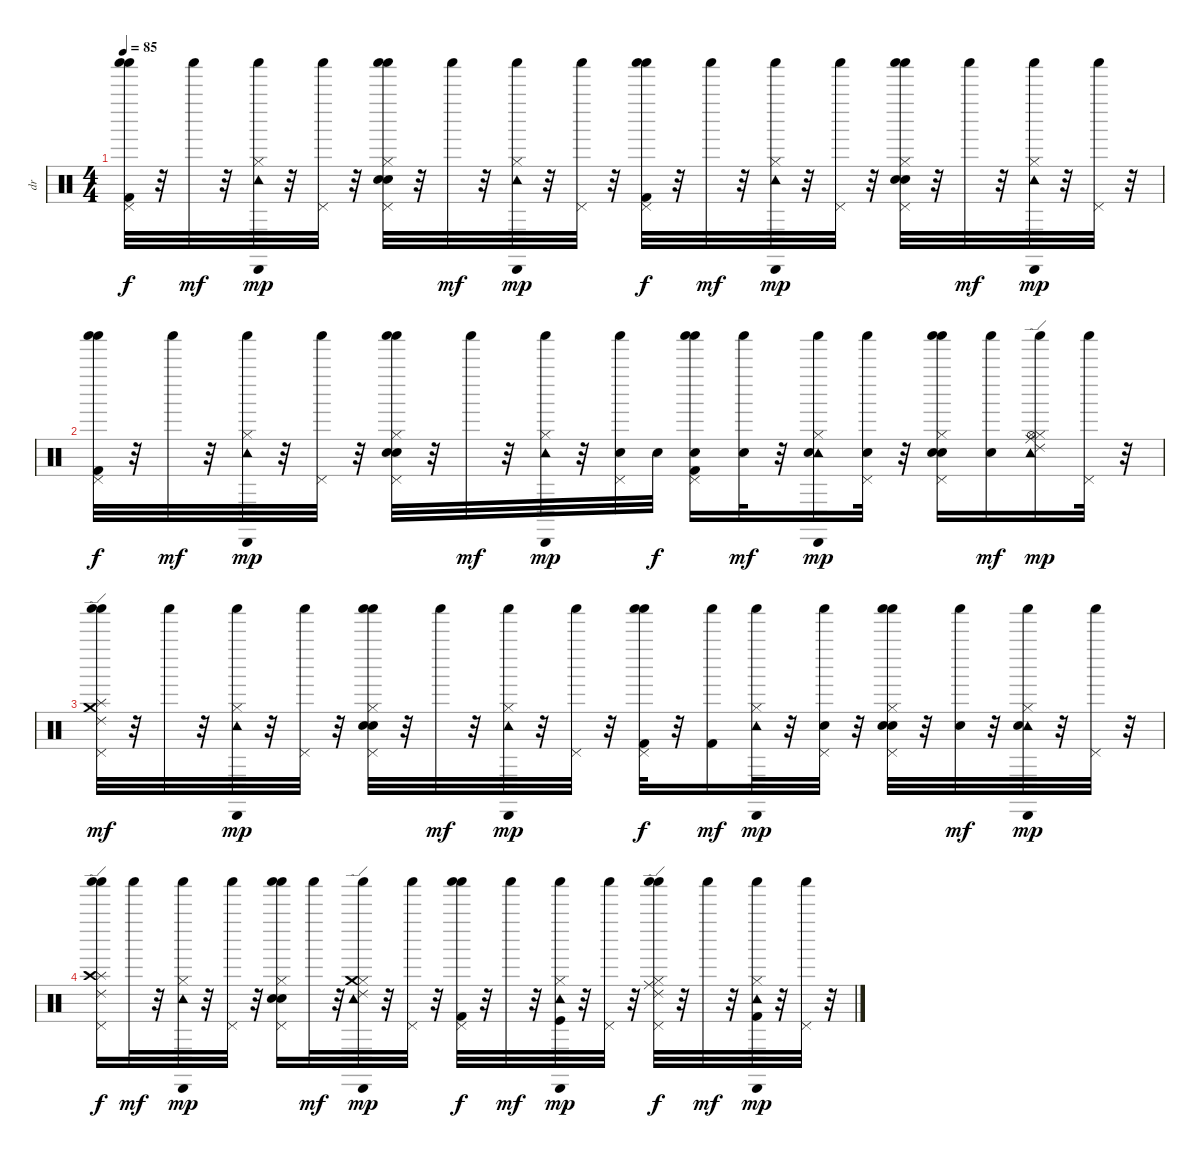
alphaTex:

\track ("dr" "dr") {instrument percussion}
\staff {score}
\articulation defaults
\ts (4 4)
\tempo 85
\clef neutral
\ks c
("Pedal Hi-Hat (hit)" "Shaker (hit)" "Shaker (hit)" "Kick (hit) 2").32{dy f} r.32 "Shaker (hit)".32{dy mf} r.32 ("Hi-Hat (closed)" "Cabasa (hit)" "Tambourine (hit)" "Shaker (hit)").32{dy mp} r.32 ("Pedal Hi-Hat (hit)" "Shaker (hit)").32 r.32 ("Electric Snare (hit)" "Pedal Hi-Hat (hit)" "Shaker (hit)" "Shaker (hit)" "Hi-Hat (closed)" "Snare (hit) 2").32 r.32 "Shaker (hit)".32{dy mf} r.32 ("Hi-Hat (closed)" "Tambourine (hit)" "Cabasa (hit)" "Shaker (hit)").32{dy mp} r.32 ("Pedal Hi-Hat (hit)" "Shaker (hit)").32 r.32 ("Pedal Hi-Hat (hit)" "Shaker (hit)" "Shaker (hit)" "Kick (hit) 2").32{dy f} r.32 "Shaker (hit)".32{dy mf} r.32 ("Hi-Hat (closed)" "Cabasa (hit)" "Tambourine (hit)" "Shaker (hit)").32{dy mp} r.32 ("Pedal Hi-Hat (hit)" "Shaker (hit)").32 r.32 ("Electric Snare (hit)" "Pedal Hi-Hat (hit)" "Shaker (hit)" "Shaker (hit)" "Hi-Hat (closed)" "Snare (hit) 2").32 r.32 "Shaker (hit)".32{dy mf} r.32 ("Hi-Hat (closed)" "Cabasa (hit)" "Tambourine (hit)" "Shaker (hit)").32{dy mp} r.32 ("Pedal Hi-Hat (hit)" "Shaker (hit)").32 r.32 |
("Pedal Hi-Hat (hit)" "Shaker (hit)" "Shaker (hit)" "Kick (hit) 2").32{dy f} r.32 "Shaker (hit)".32{dy mf} r.32 ("Hi-Hat (closed)" "Cabasa (hit)" "Tambourine (hit)" "Shaker (hit)").32{dy mp} r.32 ("Pedal Hi-Hat (hit)" "Shaker (hit)").32 r.32 ("Electric Snare (hit)" "Pedal Hi-Hat (hit)" "Shaker (hit)" "Shaker (hit)" "Hi-Hat (closed)" "Snare (hit) 2").32 r.32 "Shaker (hit)".32{dy mf} r.32 ("Hi-Hat (closed)" "Cabasa (hit)" "Tambourine (hit)" "Shaker (hit)").32{dy mp} r.32 ("Pedal Hi-Hat (hit)" "Shaker (hit)" "Snare (hit) 2").32 "Snare (hit) 2".32{dy f} ("Pedal Hi-Hat (hit)" "Shaker (hit)" "Shaker (hit)" "Kick (hit) 2" "Snare (hit) 2").16 ("Shaker (hit)" "Snare (hit) 2").32{dy mf} r.32 ("Hi-Hat (closed)" "Cabasa (hit)" "Tambourine (hit)" "Shaker (hit)" "Electric Snare (hit)").16{dy mp} ("Pedal Hi-Hat (hit)" "Shaker (hit)" "Snare (hit) 2").32 r.32 ("Electric Snare (hit)" "Pedal Hi-Hat (hit)" "Shaker (hit)" "Shaker (hit)" "Hi-Hat (closed)" "Snare (hit) 2").16 ("Shaker (hit)" "Snare (hit) 2").16{dy mf} ("Hi-Hat (closed)" "Tambourine (hit)" "Shaker (hit)" "Ride (middle)" "Hi-Hat (open)" "Ride (edge) 2").16{dy mp} ("Pedal Hi-Hat (hit)" "Shaker (hit)").32 r.32 |
("Splash (hit)" "Ride (edge) 2" "Shaker (hit)" "Shaker (hit)" "Pedal Hi-Hat (hit)" "Crash medium (hit)").32{dy mf} r.32 "Shaker (hit)".32 r.32 ("Hi-Hat (closed)" "Cabasa (hit)" "Tambourine (hit)" "Shaker (hit)").32{dy mp} r.32 ("Pedal Hi-Hat (hit)" "Shaker (hit)").32 r.32 ("Electric Snare (hit)" "Pedal Hi-Hat (hit)" "Shaker (hit)" "Shaker (hit)" "Hi-Hat (closed)" "Snare (hit) 2").32 r.32 "Shaker (hit)".32{dy mf} r.32 ("Hi-Hat (closed)" "Cabasa (hit)" "Tambourine (hit)" "Shaker (hit)").32{dy mp} r.32 ("Pedal Hi-Hat (hit)" "Shaker (hit)").32 r.32 ("Pedal Hi-Hat (hit)" "Shaker (hit)" "Shaker (hit)" "Kick (hit) 2").32{dy f} r.32 ("Shaker (hit)" "Kick (hit) 2").16{dy mf} ("Cabasa (hit)" "Tambourine (hit)" "Shaker (hit)" "Hi-Hat (closed)").32{dy mp} r.32 ("Pedal Hi-Hat (hit)" "Shaker (hit)" "Snare (hit) 2").32 r.32 ("Shaker (hit)" "Shaker (hit)" "Pedal Hi-Hat (hit)" "Hi-Hat (closed)" "Electric Snare (hit)" "Snare (hit) 2").32 r.32 ("Shaker (hit)" "Snare (hit) 2").32{dy mf} r.32 ("Hi-Hat (closed)" "Cabasa (hit)" "Tambourine (hit)" "Shaker (hit)" "Snare (hit) 2").32{dy mp} r.32 ("Pedal Hi-Hat (hit)" "Shaker (hit)").32 r.32 |
("Pedal Hi-Hat (hit)" "Shaker (hit)" "Shaker (hit)" "Ride (edge) 2" "Splash (hit)" "Crash high (hit)").16{dy f} "Shaker (hit)".32{dy mf} r.32 ("Hi-Hat (closed)" "Cabasa (hit)" "Tambourine (hit)" "Shaker (hit)").32{dy mp} r.32 ("Pedal Hi-Hat (hit)" "Shaker (hit)").32 r.32 ("Electric Snare (hit)" "Pedal Hi-Hat (hit)" "Shaker (hit)" "Shaker (hit)" "Hi-Hat (closed)" "Snare (hit) 2").16 "Shaker (hit)".32{dy mf} r.32 ("Hi-Hat (closed)" "Cabasa (hit)" "Tambourine (hit)" "Shaker (hit)" "Crash medium (hit)" "Ride (edge) 2").32{dy mp} r.32 ("Pedal Hi-Hat (hit)" "Shaker (hit)").32 r.32 ("Pedal Hi-Hat (hit)" "Shaker (hit)" "Shaker (hit)" "Kick (hit) 2").32{dy f} r.32 "Shaker (hit)".32{dy mf} r.32 ("Hi-Hat (closed)" "Cabasa (hit)" "Tambourine (hit)" "Shaker (hit)" "Kick (hit)").32{dy mp} r.32 ("Pedal Hi-Hat (hit)" "Shaker (hit)").32 r.32 ("Pedal Hi-Hat (hit)" "Shaker (hit)" "Shaker (hit)" "Hi-Hat (closed)" "Ride (middle)" "Ride (edge) 2").32{dy f} r.32 "Shaker (hit)".32{dy mf} r.32 ("Cabasa (hit)" "Tambourine (hit)" "Shaker (hit)" "Hi-Hat (closed)" "Kick (hit) 2").32{dy mp} r.32 ("Pedal Hi-Hat (hit)" "Shaker (hit)").32 r.32
